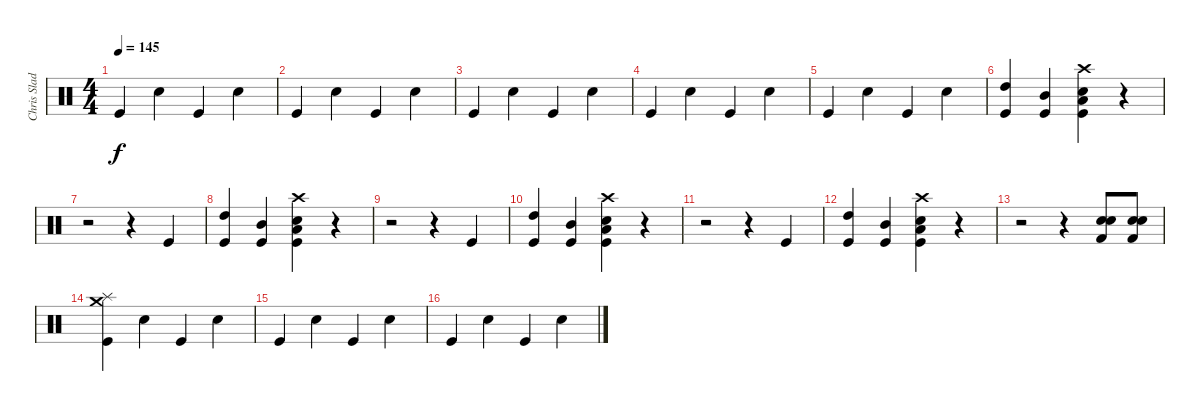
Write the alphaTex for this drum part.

\track ("Chris Slade" "Chris Slad") {instrument percussion}
\staff {score}
\articulation defaults
\ts (4 4)
\tempo 145
\clef neutral
\ks c "Kick (hit)".4{dy f} "Snare (hit) 2".4 "Kick (hit)".4 "Snare (hit) 2".4
|
"Kick (hit)".4 "Snare (hit) 2".4 "Kick (hit)".4 "Snare (hit) 2".4 |
"Kick (hit)".4 "Snare (hit) 2".4 "Kick (hit)".4 "Snare (hit) 2".4 |
"Kick (hit)".4 "Snare (hit) 2".4 "Kick (hit)".4 "Snare (hit) 2".4 |
"Kick (hit)".4 "Snare (hit) 2".4 "Kick (hit)".4 "Snare (hit) 2".4 |
("High Tom (hit)" "Kick (hit)").4 ("Mid Tom (hit)" "Kick (hit)").4 ("Low Floor Tom (hit)" "Crash high (hit)" "Snare (hit) 2" "Kick (hit)").4 r.4 |
r.2 r.4 "Kick (hit)".4 |
("High Tom (hit)" "Kick (hit)").4 ("Mid Tom (hit)" "Kick (hit)").4 ("Low Floor Tom (hit)" "Crash high (hit)" "Snare (hit) 2" "Kick (hit)").4 r.4 |
r.2 r.4 "Kick (hit)".4 |
("High Tom (hit)" "Kick (hit)").4 ("Mid Tom (hit)" "Kick (hit)").4 ("Low Floor Tom (hit)" "Crash high (hit)" "Snare (hit) 2" "Kick (hit)").4 r.4 |
r.2 r.4 "Kick (hit)".4 |
("High Tom (hit)" "Kick (hit)").4 ("Mid Tom (hit)" "Kick (hit)").4 ("Low Floor Tom (hit)" "Crash high (hit)" "Snare (hit) 2" "Kick (hit)").4 r.4 |
r.2 r.4 ("Electric Snare (hit)" "Snare (hit) 2" "Kick (hit) 2").8 ("Electric Snare (hit)" "Snare (hit) 2" "Kick (hit) 2").8 |
("Crash medium (hit)" "Splash (hit)" "Kick (hit)").4 "Snare (hit) 2".4 "Kick (hit)".4 "Snare (hit) 2".4 |
"Kick (hit)".4 "Snare (hit) 2".4 "Kick (hit)".4 "Snare (hit) 2".4 |
"Kick (hit)".4 "Snare (hit) 2".4 "Kick (hit)".4 "Snare (hit) 2".4
